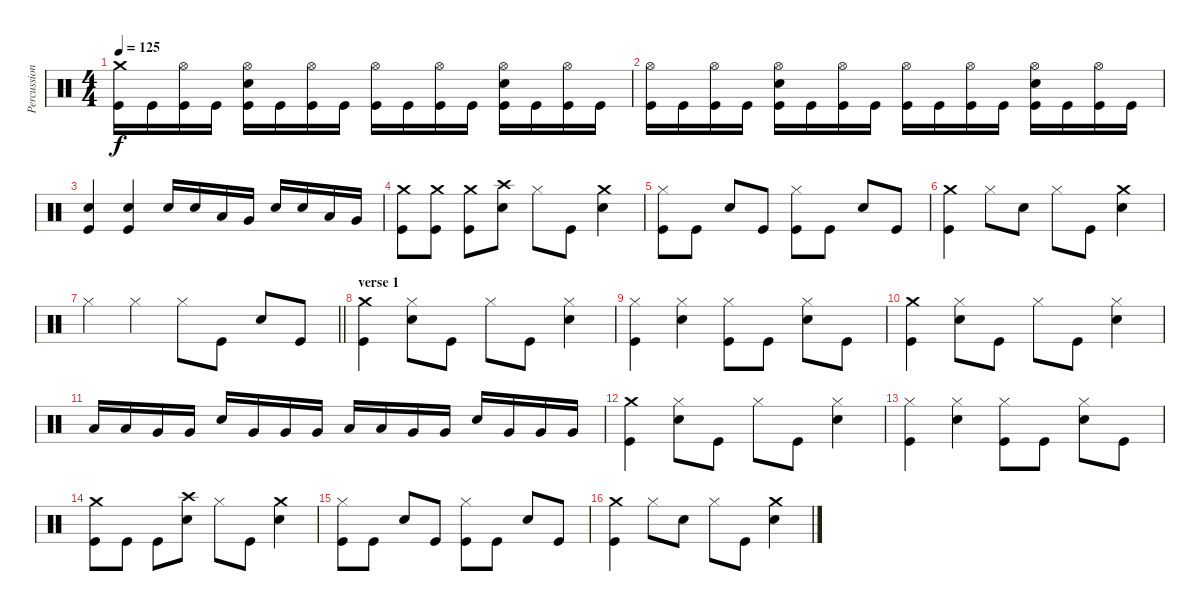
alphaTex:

\track ("Percussion" "Percussion") {instrument percussion}
\staff {score}
\articulation defaults
\ts (4 4)
\tempo 125
\clef neutral
\ks c
("Crash medium (hit)" "Kick (hit)").16{dy f} "Kick (hit)".16 ("Hi-Hat (open)" "Kick (hit)").16 "Kick (hit)".16 ("Hi-Hat (open)" "Electric Snare (hit)" "Kick (hit)").16 "Kick (hit)".16 ("Hi-Hat (open)" "Kick (hit)").16 "Kick (hit)".16 ("Hi-Hat (open)" "Kick (hit)").16 "Kick (hit)".16 ("Hi-Hat (open)" "Kick (hit)").16 "Kick (hit)".16 ("Hi-Hat (open)" "Electric Snare (hit)" "Kick (hit)").16 "Kick (hit)".16 ("Hi-Hat (open)" "Kick (hit)").16 "Kick (hit)".16 |
("Hi-Hat (open)" "Kick (hit)").16 "Kick (hit)".16 ("Hi-Hat (open)" "Kick (hit)").16 "Kick (hit)".16 ("Hi-Hat (open)" "Electric Snare (hit)" "Kick (hit)").16 "Kick (hit)".16 ("Hi-Hat (open)" "Kick (hit)").16 "Kick (hit)".16 ("Hi-Hat (open)" "Kick (hit)").16 "Kick (hit)".16 ("Hi-Hat (open)" "Kick (hit)").16 "Kick (hit)".16 ("Hi-Hat (open)" "Electric Snare (hit)" "Kick (hit)").16 "Kick (hit)".16 ("Hi-Hat (open)" "Kick (hit)").16 "Kick (hit)".16 |
("Electric Snare (hit)" "Kick (hit)").4 ("Electric Snare (hit)" "Kick (hit)").4 "Electric Snare (hit)".16 "Electric Snare (hit)".16 "Low Tom (hit)".16 "Very Low Tom (hit)".16 "Electric Snare (hit)".16 "Electric Snare (hit)".16 "Low Tom (hit)".16 "Very Low Tom (hit)".16 |
("Crash medium (hit)" "Kick (hit)").8 ("Crash medium (hit)" "Kick (hit)").8 ("Crash medium (hit)" "Kick (hit)").8 ("Crash high (hit)" "Electric Snare (hit)").8 "Hi-Hat (closed)".8 "Kick (hit)".8 ("Crash medium (hit)" "Electric Snare (hit)").4 |
("Hi-Hat (closed)" "Kick (hit)").8 "Kick (hit)".8 "Electric Snare (hit)".8 "Kick (hit)".8 ("Hi-Hat (closed)" "Kick (hit)").8 "Kick (hit)".8 "Electric Snare (hit)".8 "Kick (hit)".8 |
("Crash medium (hit)" "Kick (hit)").4 "Hi-Hat (closed)".8 "Electric Snare (hit)".8 "Hi-Hat (closed)".8 "Kick (hit)".8 ("Crash medium (hit)" "Electric Snare (hit)").4 |
\barLineRight lightlight "Hi-Hat (closed)".4 "Hi-Hat (closed)".4 "Hi-Hat (closed)".8 "Kick (hit)".8 "Electric Snare (hit)".8 "Kick (hit)".8
|
\section ("" "verse 1")
("Crash medium (hit)" "Kick (hit)").4 ("Hi-Hat (closed)" "Electric Snare (hit)").8 "Kick (hit)".8 "Hi-Hat (closed)".8 "Kick (hit)".8 ("Hi-Hat (closed)" "Electric Snare (hit)").4 |
("Hi-Hat (closed)" "Kick (hit)").4 ("Hi-Hat (closed)" "Electric Snare (hit)").4 ("Hi-Hat (closed)" "Kick (hit)").8 "Kick (hit)".8 ("Hi-Hat (closed)" "Electric Snare (hit)").8 "Kick (hit)".8 |
("Crash medium (hit)" "Kick (hit)").4 ("Hi-Hat (closed)" "Electric Snare (hit)").8 "Kick (hit)".8 "Hi-Hat (closed)".8 "Kick (hit)".8 ("Hi-Hat (closed)" "Electric Snare (hit)").4 |
"Low Tom (hit)".16 "Low Tom (hit)".16 "Very Low Tom (hit)".16 "Very Low Tom (hit)".16 "Electric Snare (hit)".16 "Very Low Tom (hit)".16 "Very Low Tom (hit)".16 "Very Low Tom (hit)".16 "Low Tom (hit)".16 "Low Tom (hit)".16 "Very Low Tom (hit)".16 "Very Low Tom (hit)".16 "Electric Snare (hit)".16 "Very Low Tom (hit)".16 "Very Low Tom (hit)".16 "Very Low Tom (hit)".16 |
("Crash medium (hit)" "Kick (hit)").4 ("Hi-Hat (closed)" "Electric Snare (hit)").8 "Kick (hit)".8 "Hi-Hat (closed)".8 "Kick (hit)".8 ("Hi-Hat (closed)" "Electric Snare (hit)").4 |
("Hi-Hat (closed)" "Kick (hit)").4 ("Hi-Hat (closed)" "Electric Snare (hit)").4 ("Hi-Hat (closed)" "Kick (hit)").8 "Kick (hit)".8 ("Hi-Hat (closed)" "Electric Snare (hit)").8 "Kick (hit)".8 |
("Crash medium (hit)" "Kick (hit)").8 "Kick (hit)".8 "Kick (hit)".8 ("Crash high (hit)" "Electric Snare (hit)").8 "Hi-Hat (closed)".8 "Kick (hit)".8 ("Crash medium (hit)" "Electric Snare (hit)").4 |
("Hi-Hat (closed)" "Kick (hit)").8 "Kick (hit)".8 "Electric Snare (hit)".8 "Kick (hit)".8 ("Hi-Hat (closed)" "Kick (hit)").8 "Kick (hit)".8 "Electric Snare (hit)".8 "Kick (hit)".8 |
("Crash medium (hit)" "Kick (hit)").4 "Hi-Hat (closed)".8 "Electric Snare (hit)".8 "Hi-Hat (closed)".8 "Kick (hit)".8 ("Crash medium (hit)" "Electric Snare (hit)").4
